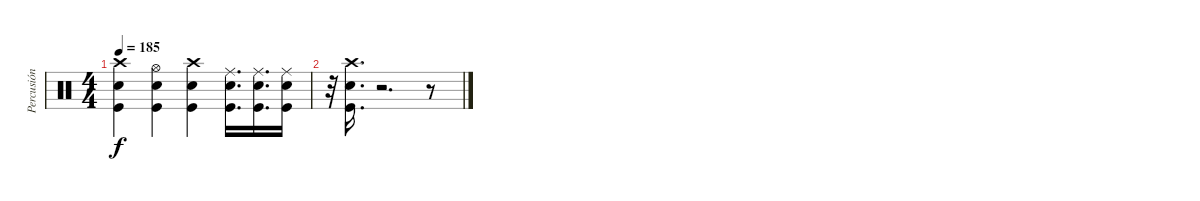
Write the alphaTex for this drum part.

\track ("Percusión" "Percusión") {instrument percussion}
\staff {score}
\articulation defaults
\ts (4 4)
\tempo 185
\clef neutral
\ks c
("Kick (hit)" "Snare (hit) 2" "Crash high (hit)").4{dy f} ("Kick (hit)" "Snare (hit) 2" "Hi-Hat (open)").4 ("Kick (hit)" "Snare (hit) 2" "Crash high (hit)").4 ("Kick (hit)" "Snare (hit) 2" "Ride (middle)").16{d} ("Kick (hit)" "Snare (hit) 2" "Ride (middle)").16{d} ("Kick (hit)" "Snare (hit) 2" "Ride (middle)").16 |
r.32 ("Kick (hit)" "Snare (hit) 2" "Crash high (hit)").16{d} r.2{d} r.8
